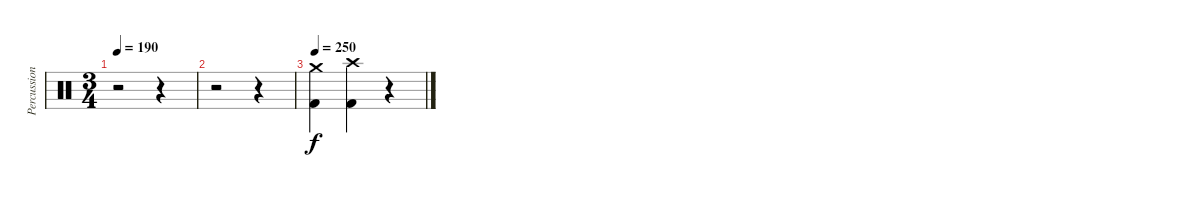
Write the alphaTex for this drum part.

\track ("Percussion" "Percussion") {instrument percussion}
\staff {score}
\articulation defaults
\ts (3 4)
\tempo 190
\clef neutral
\ks c
r.2{dy f} r.4 |
r.2 r.4 |
\tempo 250
("Crash medium (hit)" "Kick (hit) 2").4 ("Crash high (hit)" "Kick (hit) 2").4 r.4{volume 0}
